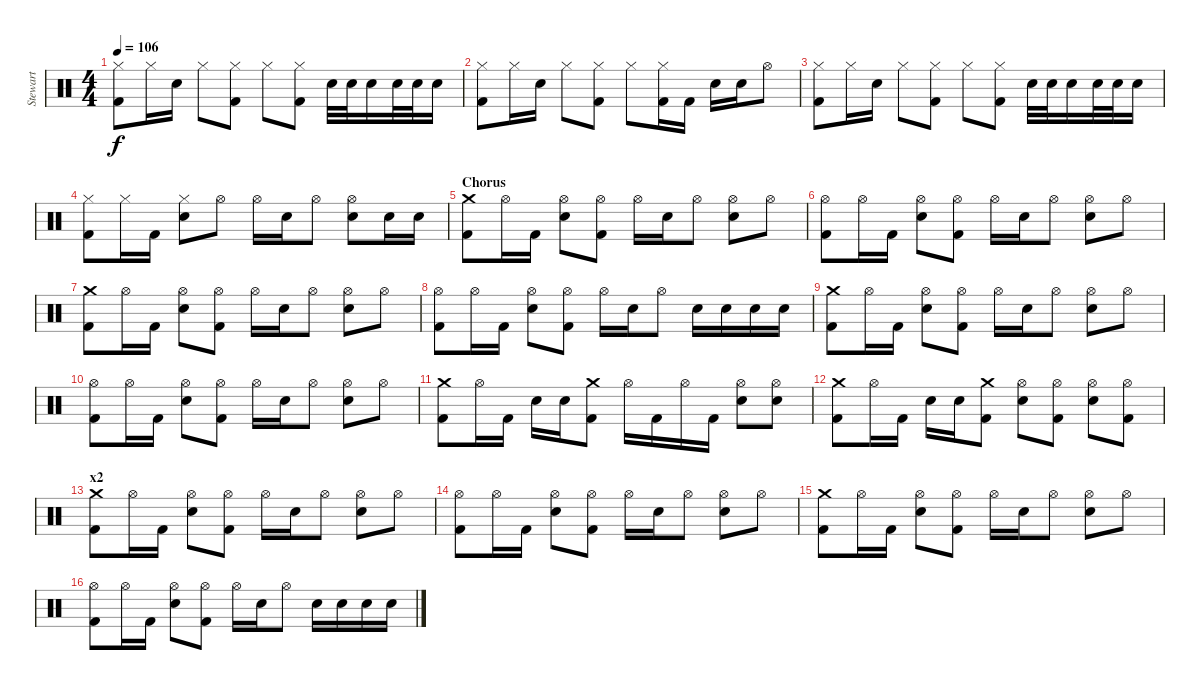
\track ("Stewart" "Stewart") {instrument percussion}
\staff {score}
\articulation defaults
\ts (4 4)
\tempo 106
\clef neutral
\ks c
("Hi-Hat (closed)" "Kick (hit) 2").8{dy f} "Hi-Hat (closed)".16 "Electric Snare (hit)".16 "Hi-Hat (closed)".8 ("Hi-Hat (closed)" "Kick (hit) 2").8 "Hi-Hat (closed)".8 ("Hi-Hat (closed)" "Kick (hit) 2").8 "Electric Snare (hit)".32 "Electric Snare (hit)".32 "Electric Snare (hit)".16 "Electric Snare (hit)".32 "Electric Snare (hit)".32 "Electric Snare (hit)".16 |
("Hi-Hat (closed)" "Kick (hit) 2").8 "Hi-Hat (closed)".16 "Electric Snare (hit)".16 "Hi-Hat (closed)".8 ("Hi-Hat (closed)" "Kick (hit) 2").8 "Hi-Hat (closed)".8 ("Hi-Hat (closed)" "Kick (hit) 2").16 "Kick (hit) 2".16 "Electric Snare (hit)".16 "Electric Snare (hit)".16 "Hi-Hat (open)".8 |
("Hi-Hat (closed)" "Kick (hit) 2").8 "Hi-Hat (closed)".16 "Electric Snare (hit)".16 "Hi-Hat (closed)".8 ("Hi-Hat (closed)" "Kick (hit) 2").8 "Hi-Hat (closed)".8 ("Hi-Hat (closed)" "Kick (hit) 2").8 "Electric Snare (hit)".32 "Electric Snare (hit)".32 "Electric Snare (hit)".16 "Electric Snare (hit)".32 "Electric Snare (hit)".32 "Electric Snare (hit)".16 |
("Hi-Hat (closed)" "Kick (hit) 2").8 "Hi-Hat (closed)".16 "Kick (hit) 2".16 ("Hi-Hat (closed)" "Electric Snare (hit)").8 "Hi-Hat (open)".8 "Hi-Hat (open)".16 "Electric Snare (hit)".16 "Hi-Hat (open)".8 ("Hi-Hat (open)" "Electric Snare (hit)").8 "Electric Snare (hit)".16 "Electric Snare (hit)".16 |
\section ("" "Chorus")
("Crash medium (hit)" "Kick (hit) 2").8 "Hi-Hat (open)".16 "Kick (hit) 2".16 ("Hi-Hat (open)" "Electric Snare (hit)").8 ("Hi-Hat (open)" "Kick (hit) 2").8 "Hi-Hat (open)".16 "Electric Snare (hit)".16 "Hi-Hat (open)".8 ("Hi-Hat (open)" "Electric Snare (hit)").8 "Hi-Hat (open)".8 |
("Hi-Hat (open)" "Kick (hit) 2").8 "Hi-Hat (open)".16 "Kick (hit) 2".16 ("Hi-Hat (open)" "Electric Snare (hit)").8 ("Hi-Hat (open)" "Kick (hit) 2").8 "Hi-Hat (open)".16 "Electric Snare (hit)".16 "Hi-Hat (open)".8 ("Hi-Hat (open)" "Electric Snare (hit)").8 "Hi-Hat (open)".8 |
("Crash medium (hit)" "Kick (hit) 2").8 "Hi-Hat (open)".16 "Kick (hit) 2".16 ("Hi-Hat (open)" "Electric Snare (hit)").8 ("Hi-Hat (open)" "Kick (hit) 2").8 "Hi-Hat (open)".16 "Electric Snare (hit)".16 "Hi-Hat (open)".8 ("Hi-Hat (open)" "Electric Snare (hit)").8 "Hi-Hat (open)".8 |
("Hi-Hat (open)" "Kick (hit) 2").8 "Hi-Hat (open)".16 "Kick (hit) 2".16 ("Hi-Hat (open)" "Electric Snare (hit)").8 ("Hi-Hat (open)" "Kick (hit) 2").8 "Hi-Hat (open)".16 "Electric Snare (hit)".16 "Hi-Hat (open)".8 "Electric Snare (hit)".16 "Electric Snare (hit)".16 "Electric Snare (hit)".16 "Electric Snare (hit)".16 |
("Crash medium (hit)" "Kick (hit) 2").8 "Hi-Hat (open)".16 "Kick (hit) 2".16 ("Hi-Hat (open)" "Electric Snare (hit)").8 ("Hi-Hat (open)" "Kick (hit) 2").8 "Hi-Hat (open)".16 "Electric Snare (hit)".16 "Hi-Hat (open)".8 ("Hi-Hat (open)" "Electric Snare (hit)").8 "Hi-Hat (open)".8 |
("Hi-Hat (open)" "Kick (hit) 2").8 "Hi-Hat (open)".16 "Kick (hit) 2".16 ("Hi-Hat (open)" "Electric Snare (hit)").8 ("Hi-Hat (open)" "Kick (hit) 2").8 "Hi-Hat (open)".16 "Electric Snare (hit)".16 "Hi-Hat (open)".8 ("Hi-Hat (open)" "Electric Snare (hit)").8 "Hi-Hat (open)".8 |
("Crash medium (hit)" "Kick (hit) 2").8 "Hi-Hat (open)".16 "Kick (hit) 2".16 "Electric Snare (hit)".16 "Electric Snare (hit)".16 ("Crash medium (hit)" "Kick (hit) 2").8 "Hi-Hat (open)".16 "Kick (hit) 2".16 "Hi-Hat (open)".16 "Kick (hit) 2".16 ("Hi-Hat (open)" "Electric Snare (hit)").8 ("Hi-Hat (open)" "Electric Snare (hit)").8 |
("Crash medium (hit)" "Kick (hit) 2").8 "Hi-Hat (open)".16 "Kick (hit) 2".16 "Electric Snare (hit)".16 "Electric Snare (hit)".16 ("Crash medium (hit)" "Kick (hit) 2").8 ("Hi-Hat (open)" "Electric Snare (hit)").8 ("Hi-Hat (open)" "Kick (hit) 2").8 ("Hi-Hat (open)" "Electric Snare (hit)").8 ("Hi-Hat (open)" "Kick (hit) 2").8 |
\section ("" "x2")
("Crash medium (hit)" "Kick (hit) 2").8 "Hi-Hat (open)".16 "Kick (hit) 2".16 ("Hi-Hat (open)" "Electric Snare (hit)").8 ("Hi-Hat (open)" "Kick (hit) 2").8 "Hi-Hat (open)".16 "Electric Snare (hit)".16 "Hi-Hat (open)".8 ("Hi-Hat (open)" "Electric Snare (hit)").8 "Hi-Hat (open)".8 |
("Hi-Hat (open)" "Kick (hit) 2").8 "Hi-Hat (open)".16 "Kick (hit) 2".16 ("Hi-Hat (open)" "Electric Snare (hit)").8 ("Hi-Hat (open)" "Kick (hit) 2").8 "Hi-Hat (open)".16 "Electric Snare (hit)".16 "Hi-Hat (open)".8 ("Hi-Hat (open)" "Electric Snare (hit)").8 "Hi-Hat (open)".8 |
("Crash medium (hit)" "Kick (hit) 2").8 "Hi-Hat (open)".16 "Kick (hit) 2".16 ("Hi-Hat (open)" "Electric Snare (hit)").8 ("Hi-Hat (open)" "Kick (hit) 2").8 "Hi-Hat (open)".16 "Electric Snare (hit)".16 "Hi-Hat (open)".8 ("Hi-Hat (open)" "Electric Snare (hit)").8 "Hi-Hat (open)".8 |
("Hi-Hat (open)" "Kick (hit) 2").8 "Hi-Hat (open)".16 "Kick (hit) 2".16 ("Hi-Hat (open)" "Electric Snare (hit)").8 ("Hi-Hat (open)" "Kick (hit) 2").8 "Hi-Hat (open)".16 "Electric Snare (hit)".16 "Hi-Hat (open)".8 "Electric Snare (hit)".16 "Electric Snare (hit)".16 "Electric Snare (hit)".16 "Electric Snare (hit)".16
